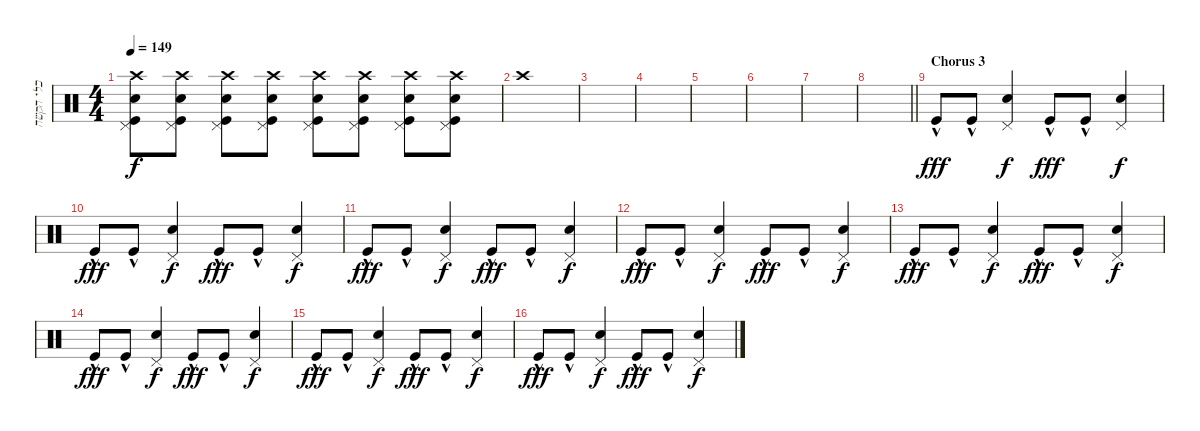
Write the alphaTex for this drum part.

\track ("כלי הקשה" "כלי הקשה") {instrument percussion}
\staff {score}
\articulation defaults
\ts (4 4)
\tempo 149
\clef neutral
\ks c
("Electric Snare (hit)" "Kick (hit)" "Pedal Hi-Hat (hit)" "Crash high (hit)").8{dy f} ("Electric Snare (hit)" "Kick (hit)" "Pedal Hi-Hat (hit)" "Crash high (hit)").8 ("Electric Snare (hit)" "Kick (hit)" "Pedal Hi-Hat (hit)" "Crash high (hit)").8 ("Electric Snare (hit)" "Kick (hit)" "Pedal Hi-Hat (hit)" "Crash high (hit)").8 ("Electric Snare (hit)" "Kick (hit)" "Pedal Hi-Hat (hit)" "Crash high (hit)").8 ("Electric Snare (hit)" "Kick (hit)" "Pedal Hi-Hat (hit)" "Crash high (hit)").8 ("Electric Snare (hit)" "Kick (hit)" "Pedal Hi-Hat (hit)" "Crash high (hit)").8 ("Electric Snare (hit)" "Kick (hit)" "Pedal Hi-Hat (hit)" "Crash high (hit)").8 |
"Crash high (hit)".1 |
|
|
|
|
|
\barLineRight lightlight
|
\section ("" "Chorus 3")
"Kick (hit)"{hac}.8{dy fff} "Kick (hit)"{hac}.8 ("Electric Snare (hit)" "Pedal Hi-Hat (hit)").4{dy f} "Kick (hit)"{hac}.8{dy fff} "Kick (hit)"{hac}.8 ("Electric Snare (hit)" "Pedal Hi-Hat (hit)").4{dy f} |
"Kick (hit)"{hac}.8{dy fff} "Kick (hit)"{hac}.8 ("Electric Snare (hit)" "Pedal Hi-Hat (hit)").4{dy f} "Kick (hit)"{hac}.8{dy fff} "Kick (hit)"{hac}.8 ("Electric Snare (hit)" "Pedal Hi-Hat (hit)").4{dy f} |
"Kick (hit)"{hac}.8{dy fff} "Kick (hit)"{hac}.8 ("Electric Snare (hit)" "Pedal Hi-Hat (hit)").4{dy f} "Kick (hit)"{hac}.8{dy fff} "Kick (hit)"{hac}.8 ("Electric Snare (hit)" "Pedal Hi-Hat (hit)").4{dy f} |
"Kick (hit)"{hac}.8{dy fff} "Kick (hit)"{hac}.8 ("Electric Snare (hit)" "Pedal Hi-Hat (hit)").4{dy f} "Kick (hit)"{hac}.8{dy fff} "Kick (hit)"{hac}.8 ("Electric Snare (hit)" "Pedal Hi-Hat (hit)").4{dy f} |
"Kick (hit)"{hac}.8{dy fff} "Kick (hit)"{hac}.8 ("Electric Snare (hit)" "Pedal Hi-Hat (hit)").4{dy f} "Kick (hit)"{hac}.8{dy fff} "Kick (hit)"{hac}.8 ("Electric Snare (hit)" "Pedal Hi-Hat (hit)").4{dy f} |
"Kick (hit)"{hac}.8{dy fff} "Kick (hit)"{hac}.8 ("Electric Snare (hit)" "Pedal Hi-Hat (hit)").4{dy f} "Kick (hit)"{hac}.8{dy fff} "Kick (hit)"{hac}.8 ("Electric Snare (hit)" "Pedal Hi-Hat (hit)").4{dy f} |
"Kick (hit)"{hac}.8{dy fff} "Kick (hit)"{hac}.8 ("Electric Snare (hit)" "Pedal Hi-Hat (hit)").4{dy f} "Kick (hit)"{hac}.8{dy fff} "Kick (hit)"{hac}.8 ("Electric Snare (hit)" "Pedal Hi-Hat (hit)").4{dy f} |
"Kick (hit)"{hac}.8{dy fff} "Kick (hit)"{hac}.8 ("Electric Snare (hit)" "Pedal Hi-Hat (hit)").4{dy f} "Kick (hit)"{hac}.8{dy fff} "Kick (hit)"{hac}.8 ("Electric Snare (hit)" "Pedal Hi-Hat (hit)").4{dy f}
